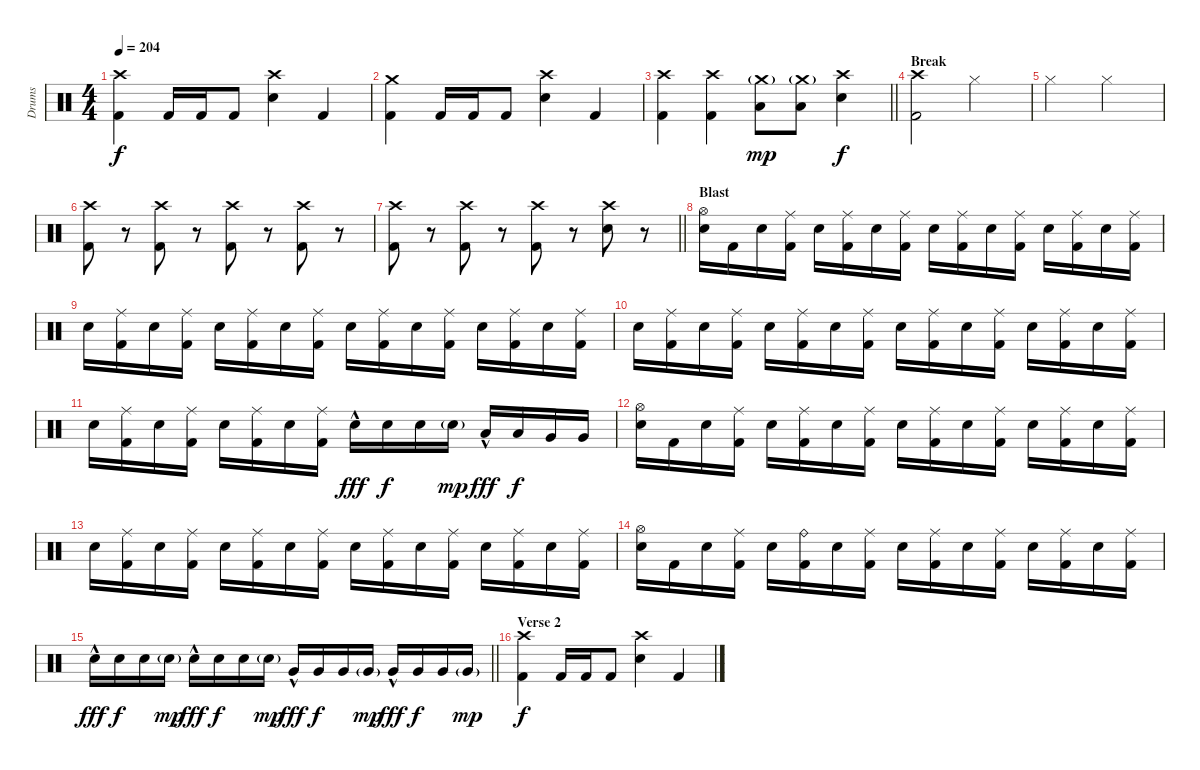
\track ("Drums" "Drums") {instrument percussion}
\staff {score}
\articulation defaults
\ts (4 4)
\tempo 204
\clef neutral
\ks c
("Crash high (hit)" "Kick (hit) 2").4{dy f} "Kick (hit) 2".16 "Kick (hit) 2".16 "Kick (hit) 2".8 ("Crash high (hit)" "Snare (hit) 2").4 "Kick (hit) 2".4 |
("Crash medium (hit)" "Kick (hit) 2").4 "Kick (hit) 2".16 "Kick (hit) 2".16 "Kick (hit) 2".8 ("Crash high (hit)" "Snare (hit) 2").4 "Kick (hit) 2".4 |
\barLineRight lightlight
("Crash high (hit)" "Kick (hit) 2").4 ("Crash high (hit)" "Kick (hit) 2").4 ("Crash medium (hit)"{g} "Low Floor Tom (hit)").8{dy mp} ("Crash medium (hit)"{g} "Low Floor Tom (hit)").8 ("Crash high (hit)" "Snare (hit) 2").4{dy f} |
\section ("" "Break")
("Crash high (hit)" "Kick (hit) 2").2 "Hi-Hat (closed)".2 |
"Hi-Hat (closed)".2 "Hi-Hat (closed)".2 |
("Crash high (hit)" "Kick (hit) 2").8{volume 3} r.8{volume 15} ("Crash high (hit)" "Kick (hit) 2").8{volume 3} r.8{volume 15} ("Crash high (hit)" "Kick (hit) 2").8{volume 3} r.8{volume 15} ("Crash high (hit)" "Kick (hit) 2").8{volume 3} r.8{volume 15} |
\barLineRight lightlight
("Crash high (hit)" "Kick (hit) 2").8{volume 3} r.8{volume 15} ("Crash high (hit)" "Kick (hit) 2").8{volume 3} r.8{volume 15} ("Crash high (hit)" "Kick (hit) 2").8{volume 3} r.8{volume 15} ("Crash high (hit)" "Snare (hit) 2").8{volume 3} r.8{volume 15} |
\section ("" "Blast")
("Hi-Hat (open)" "Snare (hit) 2").16{volume 15} "Kick (hit) 2".16 "Snare (hit) 2".16 ("Ride (middle)" "Kick (hit) 2").16 "Snare (hit) 2".16 ("Ride (middle)" "Kick (hit) 2").16 "Snare (hit) 2".16 ("Ride (middle)" "Kick (hit) 2").16 "Snare (hit) 2".16 ("Ride (middle)" "Kick (hit) 2").16 "Snare (hit) 2".16 ("Ride (middle)" "Kick (hit) 2").16 "Snare (hit) 2".16 ("Ride (middle)" "Kick (hit) 2").16 "Snare (hit) 2".16 ("Ride (middle)" "Kick (hit) 2").16 |
"Snare (hit) 2".16 ("Ride (middle)" "Kick (hit) 2").16 "Snare (hit) 2".16 ("Ride (middle)" "Kick (hit) 2").16 "Snare (hit) 2".16 ("Ride (middle)" "Kick (hit) 2").16 "Snare (hit) 2".16 ("Ride (middle)" "Kick (hit) 2").16 "Snare (hit) 2".16 ("Ride (middle)" "Kick (hit) 2").16 "Snare (hit) 2".16 ("Ride (middle)" "Kick (hit) 2").16 "Snare (hit) 2".16 ("Ride (middle)" "Kick (hit) 2").16 "Snare (hit) 2".16 ("Ride (middle)" "Kick (hit) 2").16 |
"Snare (hit) 2".16 ("Ride (middle)" "Kick (hit) 2").16 "Snare (hit) 2".16 ("Ride (middle)" "Kick (hit) 2").16 "Snare (hit) 2".16 ("Ride (middle)" "Kick (hit) 2").16 "Snare (hit) 2".16 ("Ride (middle)" "Kick (hit) 2").16 "Snare (hit) 2".16 ("Ride (middle)" "Kick (hit) 2").16 "Snare (hit) 2".16 ("Ride (middle)" "Kick (hit) 2").16 "Snare (hit) 2".16 ("Ride (middle)" "Kick (hit) 2").16 "Snare (hit) 2".16 ("Ride (middle)" "Kick (hit) 2").16 |
"Snare (hit) 2".16 ("Ride (middle)" "Kick (hit) 2").16 "Snare (hit) 2".16 ("Ride (middle)" "Kick (hit) 2").16 "Snare (hit) 2".16 ("Ride (middle)" "Kick (hit) 2").16 "Snare (hit) 2".16 ("Ride (middle)" "Kick (hit) 2").16 "Snare (hit) 2"{hac}.16{dy fff} "Snare (hit) 2".16{dy f} "Snare (hit) 2".16 "Snare (hit) 2"{g}.16{dy mp} "Low Tom (hit)"{hac}.16{dy fff} "Low Tom (hit)".16{dy f} "Very Low Tom (hit)".16 "Very Low Tom (hit)".16 |
("Hi-Hat (open)" "Snare (hit) 2").16 "Kick (hit) 2".16 "Snare (hit) 2".16 ("Ride (middle)" "Kick (hit) 2").16 "Snare (hit) 2".16 ("Ride (middle)" "Kick (hit) 2").16 "Snare (hit) 2".16 ("Ride (middle)" "Kick (hit) 2").16 "Snare (hit) 2".16 ("Ride (middle)" "Kick (hit) 2").16 "Snare (hit) 2".16 ("Ride (middle)" "Kick (hit) 2").16 "Snare (hit) 2".16 ("Ride (middle)" "Kick (hit) 2").16 "Snare (hit) 2".16 ("Ride (middle)" "Kick (hit) 2").16 |
"Snare (hit) 2".16 ("Ride (middle)" "Kick (hit) 2").16 "Snare (hit) 2".16 ("Ride (middle)" "Kick (hit) 2").16 "Snare (hit) 2".16 ("Ride (middle)" "Kick (hit) 2").16 "Snare (hit) 2".16 ("Ride (middle)" "Kick (hit) 2").16 "Snare (hit) 2".16 ("Ride (middle)" "Kick (hit) 2").16 "Snare (hit) 2".16 ("Ride (middle)" "Kick (hit) 2").16 "Snare (hit) 2".16 ("Ride (middle)" "Kick (hit) 2").16 "Snare (hit) 2".16 ("Ride (middle)" "Kick (hit) 2").16 |
("Hi-Hat (open)" "Snare (hit) 2").16 "Kick (hit) 2".16 "Snare (hit) 2".16 ("Ride (middle)" "Kick (hit) 2").16 "Snare (hit) 2".16 ("Ride (bell)" "Kick (hit) 2").16 "Snare (hit) 2".16 ("Ride (middle)" "Kick (hit) 2").16 "Snare (hit) 2".16 ("Ride (middle)" "Kick (hit) 2").16 "Snare (hit) 2".16 ("Ride (middle)" "Kick (hit) 2").16 "Snare (hit) 2".16 ("Ride (middle)" "Kick (hit) 2").16 "Snare (hit) 2".16 ("Ride (middle)" "Kick (hit) 2").16 |
\barLineRight lightlight "Snare (hit) 2"{hac}.16{dy fff} "Snare (hit) 2".16{dy f} "Snare (hit) 2".16 "Snare (hit) 2"{g}.16{dy mp} "Snare (hit) 2"{hac}.16{dy fff} "Snare (hit) 2".16{dy f} "Snare (hit) 2".16 "Snare (hit) 2"{g}.16{dy mp} "Very Low Tom (hit)"{hac}.16{dy fff} "Very Low Tom (hit)".16{dy f} "Very Low Tom (hit)".16 "Very Low Tom (hit)"{g}.16{dy mp} "Very Low Tom (hit)"{hac}.16{dy fff} "Very Low Tom (hit)".16{dy f} "Very Low Tom (hit)".16 "Very Low Tom (hit)"{g}.16{dy mp}
|
\section ("" "Verse 2")
("Crash high (hit)" "Kick (hit) 2").4{dy f} "Kick (hit) 2".16 "Kick (hit) 2".16 "Kick (hit) 2".8 ("Crash high (hit)" "Snare (hit) 2").4 "Kick (hit) 2".4
